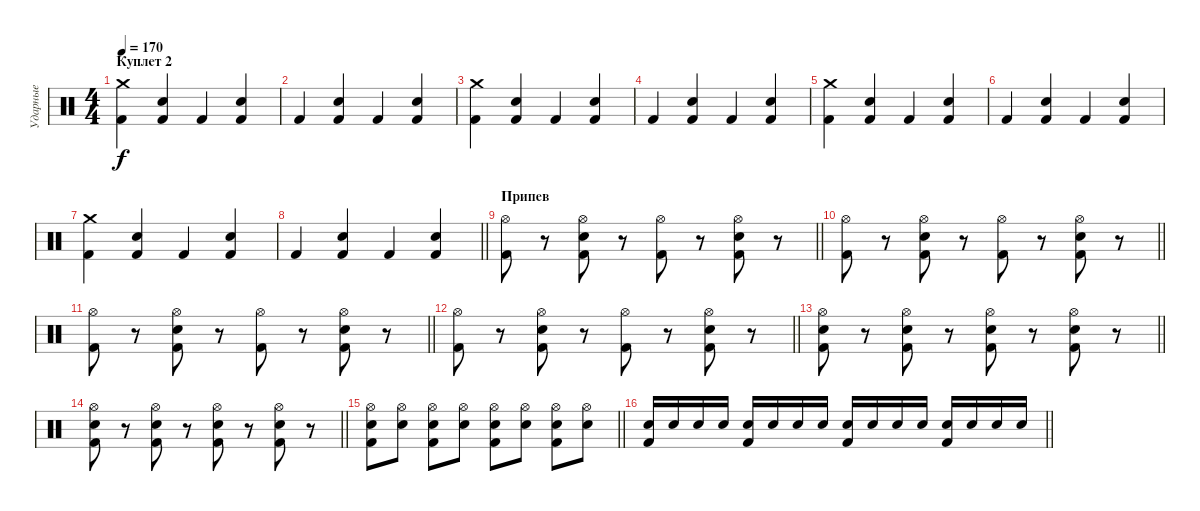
\track ("Ударные" "Ударные") {instrument percussion}
\staff {score}
\articulation defaults
\ts (4 4)
\section ("" "Куплет 2")
\tempo 170
\clef neutral
\ks c
("Kick (hit) 2" "Crash medium (hit)").4{dy f} ("Kick (hit) 2" "Electric Snare (hit)").4 "Kick (hit) 2".4 ("Kick (hit) 2" "Electric Snare (hit)").4 |
"Kick (hit) 2".4 ("Kick (hit) 2" "Electric Snare (hit)").4 "Kick (hit) 2".4 ("Kick (hit) 2" "Electric Snare (hit)").4 |
("Kick (hit) 2" "Crash medium (hit)").4 ("Kick (hit) 2" "Electric Snare (hit)").4 "Kick (hit) 2".4 ("Kick (hit) 2" "Electric Snare (hit)").4 |
"Kick (hit) 2".4 ("Kick (hit) 2" "Electric Snare (hit)").4 "Kick (hit) 2".4 ("Kick (hit) 2" "Electric Snare (hit)").4 |
("Kick (hit) 2" "Crash medium (hit)").4 ("Kick (hit) 2" "Electric Snare (hit)").4 "Kick (hit) 2".4 ("Kick (hit) 2" "Electric Snare (hit)").4 |
"Kick (hit) 2".4 ("Kick (hit) 2" "Electric Snare (hit)").4 "Kick (hit) 2".4 ("Kick (hit) 2" "Electric Snare (hit)").4 |
("Kick (hit) 2" "Crash medium (hit)").4 ("Kick (hit) 2" "Electric Snare (hit)").4 "Kick (hit) 2".4 ("Kick (hit) 2" "Electric Snare (hit)").4 |
\barLineRight lightlight "Kick (hit) 2".4
("Kick (hit) 2" "Electric Snare (hit)").4 "Kick (hit) 2".4 ("Kick (hit) 2" "Electric Snare (hit)").4 |
\section ("" "Припев")
\barLineRight lightlight
("Kick (hit) 2" "Hi-Hat (open)").8 r.8 ("Kick (hit) 2" "Hi-Hat (open)" "Electric Snare (hit)").8 r.8 ("Kick (hit) 2" "Hi-Hat (open)").8 r.8 ("Kick (hit) 2" "Hi-Hat (open)" "Electric Snare (hit)").8 r.8 |
\barLineRight lightlight
("Kick (hit) 2" "Hi-Hat (open)").8 r.8 ("Kick (hit) 2" "Hi-Hat (open)" "Electric Snare (hit)").8 r.8 ("Kick (hit) 2" "Hi-Hat (open)").8 r.8 ("Kick (hit) 2" "Hi-Hat (open)" "Electric Snare (hit)").8 r.8 |
\barLineRight lightlight
("Kick (hit) 2" "Hi-Hat (open)").8 r.8 ("Kick (hit) 2" "Hi-Hat (open)" "Electric Snare (hit)").8 r.8 ("Kick (hit) 2" "Hi-Hat (open)").8 r.8 ("Kick (hit) 2" "Hi-Hat (open)" "Electric Snare (hit)").8 r.8 |
\barLineRight lightlight
("Kick (hit) 2" "Hi-Hat (open)").8 r.8 ("Kick (hit) 2" "Hi-Hat (open)" "Electric Snare (hit)").8 r.8 ("Kick (hit) 2" "Hi-Hat (open)").8 r.8 ("Kick (hit) 2" "Hi-Hat (open)" "Electric Snare (hit)").8 r.8 |
\barLineRight lightlight
("Kick (hit) 2" "Hi-Hat (open)" "Electric Snare (hit)").8 r.8 ("Kick (hit) 2" "Hi-Hat (open)" "Electric Snare (hit)").8 r.8 ("Kick (hit) 2" "Hi-Hat (open)" "Electric Snare (hit)").8 r.8 ("Kick (hit) 2" "Hi-Hat (open)" "Electric Snare (hit)").8 r.8 |
\barLineRight lightlight
("Kick (hit) 2" "Hi-Hat (open)" "Electric Snare (hit)").8 r.8 ("Kick (hit) 2" "Hi-Hat (open)" "Electric Snare (hit)").8 r.8 ("Kick (hit) 2" "Hi-Hat (open)" "Electric Snare (hit)").8 r.8 ("Kick (hit) 2" "Hi-Hat (open)" "Electric Snare (hit)").8 r.8 |
\barLineRight lightlight
("Kick (hit) 2" "Hi-Hat (open)" "Electric Snare (hit)").8 ("Hi-Hat (open)" "Electric Snare (hit)").8 ("Kick (hit) 2" "Hi-Hat (open)" "Electric Snare (hit)").8 ("Hi-Hat (open)" "Electric Snare (hit)").8 ("Kick (hit) 2" "Hi-Hat (open)" "Electric Snare (hit)").8 ("Hi-Hat (open)" "Electric Snare (hit)").8 ("Kick (hit) 2" "Hi-Hat (open)" "Electric Snare (hit)").8 ("Hi-Hat (open)" "Electric Snare (hit)").8 |
\barLineRight lightlight
("Kick (hit) 2" "Electric Snare (hit)").16 "Electric Snare (hit)".16 "Electric Snare (hit)".16 "Electric Snare (hit)".16 ("Kick (hit) 2" "Electric Snare (hit)").16 "Electric Snare (hit)".16 "Electric Snare (hit)".16 "Electric Snare (hit)".16 ("Kick (hit) 2" "Electric Snare (hit)").16 "Electric Snare (hit)".16 "Electric Snare (hit)".16 "Electric Snare (hit)".16 ("Kick (hit) 2" "Electric Snare (hit)").16 "Electric Snare (hit)".16 "Electric Snare (hit)".16 "Electric Snare (hit)".16
